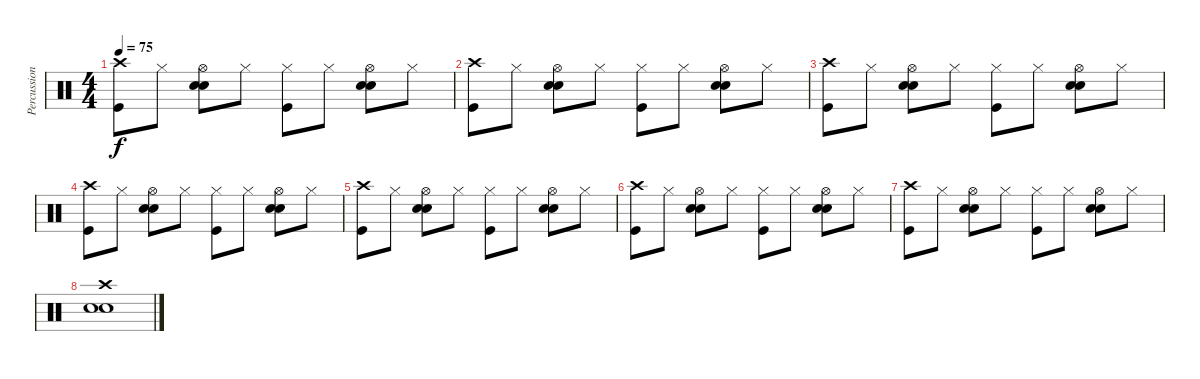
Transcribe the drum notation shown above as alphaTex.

\track ("Percussions" "Percussion") {instrument percussion}
\staff {score}
\articulation defaults
\ts (4 4)
\tempo 75
\clef neutral
\ks c
("Crash high (hit)" "Kick (hit)").8{dy f} "Hi-Hat (closed)".8 ("Hi-Hat (open)" "Snare (hit) 2" "Electric Snare (hit)").8 "Hi-Hat (closed)".8 ("Hi-Hat (closed)" "Kick (hit)").8 "Hi-Hat (closed)".8 ("Hi-Hat (open)" "Snare (hit) 2" "Electric Snare (hit)").8 "Hi-Hat (closed)".8 |
("Crash high (hit)" "Kick (hit)").8 "Hi-Hat (closed)".8 ("Hi-Hat (open)" "Snare (hit) 2" "Electric Snare (hit)").8 "Hi-Hat (closed)".8 ("Hi-Hat (closed)" "Kick (hit)").8 "Hi-Hat (closed)".8 ("Hi-Hat (open)" "Snare (hit) 2" "Electric Snare (hit)").8 "Hi-Hat (closed)".8 |
("Crash high (hit)" "Kick (hit)").8 "Hi-Hat (closed)".8 ("Hi-Hat (open)" "Snare (hit) 2" "Electric Snare (hit)").8 "Hi-Hat (closed)".8 ("Hi-Hat (closed)" "Kick (hit)").8 "Hi-Hat (closed)".8 ("Hi-Hat (open)" "Snare (hit) 2" "Electric Snare (hit)").8 "Hi-Hat (closed)".8 |
("Crash high (hit)" "Kick (hit)").8 "Hi-Hat (closed)".8 ("Hi-Hat (open)" "Snare (hit) 2" "Electric Snare (hit)").8 "Hi-Hat (closed)".8 ("Hi-Hat (closed)" "Kick (hit)").8 "Hi-Hat (closed)".8 ("Hi-Hat (open)" "Snare (hit) 2" "Electric Snare (hit)").8 "Hi-Hat (closed)".8 |
("Crash high (hit)" "Kick (hit)").8 "Hi-Hat (closed)".8 ("Hi-Hat (open)" "Snare (hit) 2" "Electric Snare (hit)").8 "Hi-Hat (closed)".8 ("Hi-Hat (closed)" "Kick (hit)").8 "Hi-Hat (closed)".8 ("Hi-Hat (open)" "Snare (hit) 2" "Electric Snare (hit)").8 "Hi-Hat (closed)".8 |
("Crash high (hit)" "Kick (hit)").8 "Hi-Hat (closed)".8 ("Hi-Hat (open)" "Snare (hit) 2" "Electric Snare (hit)").8 "Hi-Hat (closed)".8 ("Hi-Hat (closed)" "Kick (hit)").8 "Hi-Hat (closed)".8 ("Hi-Hat (open)" "Snare (hit) 2" "Electric Snare (hit)").8 "Hi-Hat (closed)".8 |
("Crash high (hit)" "Kick (hit)").8 "Hi-Hat (closed)".8 ("Hi-Hat (open)" "Snare (hit) 2" "Electric Snare (hit)").8 "Hi-Hat (closed)".8 ("Hi-Hat (closed)" "Kick (hit)").8 "Hi-Hat (closed)".8 ("Hi-Hat (open)" "Snare (hit) 2" "Electric Snare (hit)").8 "Hi-Hat (closed)".8 |
("Electric Snare (hit)" "Snare (hit) 2" "Crash high (hit)").1
